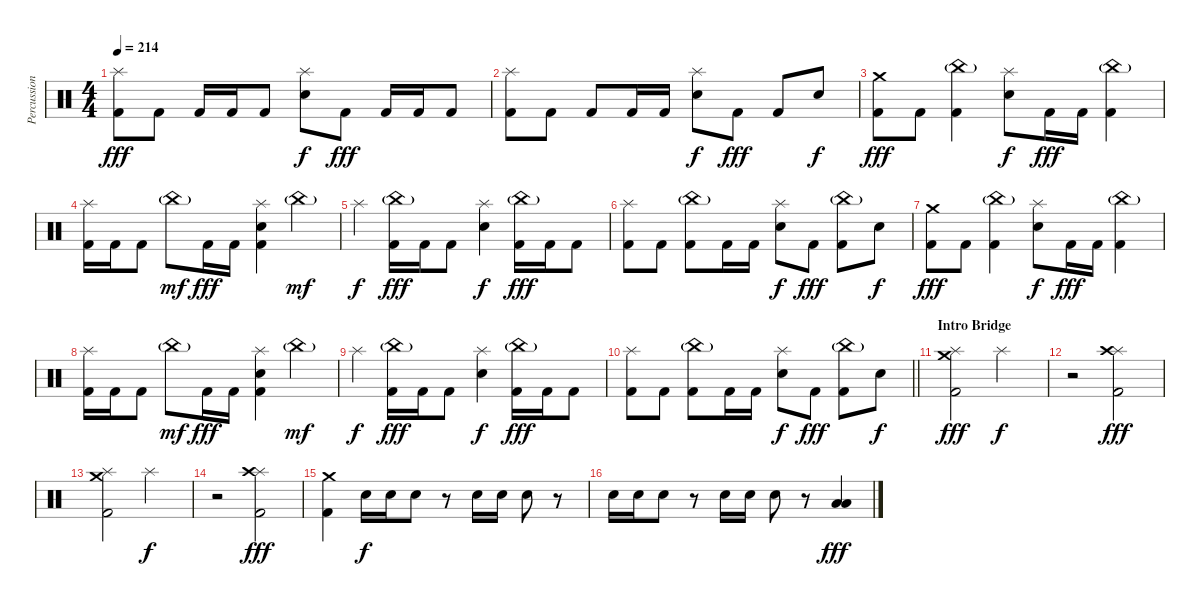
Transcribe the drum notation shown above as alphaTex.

\track ("Percussion" "Percussion") {instrument percussion}
\staff {score}
\articulation defaults
\ts (4 4)
\tempo 214
\clef neutral
\ks c
("Splash (hit)" "Kick (hit) 2").8{dy fff} "Kick (hit) 2".8 "Kick (hit) 2".16 "Kick (hit) 2".16 "Kick (hit) 2".8 ("Splash (hit)" "Electric Snare (hit)").8{dy f} "Kick (hit) 2".8{dy fff} "Kick (hit) 2".16 "Kick (hit) 2".16 "Kick (hit) 2".8 |
("Splash (hit)" "Kick (hit) 2").8 "Kick (hit) 2".8 "Kick (hit) 2".8 "Kick (hit) 2".16 "Kick (hit) 2".16 ("Splash (hit)" "Electric Snare (hit)").8{dy f} "Kick (hit) 2".8{dy fff} "Kick (hit) 2".8 "Electric Snare (hit)".8{dy f} |
("Crash medium (hit)" "Kick (hit) 2").8{dy fff} "Kick (hit) 2".8 ("China (hit)"{g} "Kick (hit) 2").4 ("Splash (hit)" "Electric Snare (hit)").8{dy f} "Kick (hit) 2".16{dy fff} "Kick (hit) 2".16 ("China (hit)"{g} "Kick (hit) 2").4 |
("Splash (hit)" "Kick (hit) 2").16 "Kick (hit) 2".16 "Kick (hit) 2".8 "China (hit)"{g}.8{dy mf} "Kick (hit) 2".16{dy fff} "Kick (hit) 2".16 ("Splash (hit)" "Electric Snare (hit)" "Kick (hit) 2").4 "China (hit)"{g}.4{dy mf} |
"Splash (hit)".4{dy f} ("China (hit)"{g} "Kick (hit) 2").16{dy fff} "Kick (hit) 2".16 "Kick (hit) 2".8 ("Splash (hit)" "Electric Snare (hit)").4{dy f} ("China (hit)"{g} "Kick (hit) 2").16{dy fff} "Kick (hit) 2".16 "Kick (hit) 2".8 |
("Splash (hit)" "Kick (hit) 2").8 "Kick (hit) 2".8 ("China (hit)"{g} "Kick (hit) 2").8 "Kick (hit) 2".16 "Kick (hit) 2".16 ("Splash (hit)" "Electric Snare (hit)").8{dy f} "Kick (hit) 2".8{dy fff} ("China (hit)"{g} "Kick (hit) 2").8 "Electric Snare (hit)".8{dy f} |
("Crash medium (hit)" "Kick (hit) 2").8{dy fff} "Kick (hit) 2".8 ("China (hit)"{g} "Kick (hit) 2").4 ("Splash (hit)" "Electric Snare (hit)").8{dy f} "Kick (hit) 2".16{dy fff} "Kick (hit) 2".16 ("China (hit)"{g} "Kick (hit) 2").4 |
("Splash (hit)" "Kick (hit) 2").16 "Kick (hit) 2".16 "Kick (hit) 2".8 "China (hit)"{g}.8{dy mf} "Kick (hit) 2".16{dy fff} "Kick (hit) 2".16 ("Splash (hit)" "Electric Snare (hit)" "Kick (hit) 2").4 "China (hit)"{g}.4{dy mf} |
"Splash (hit)".4{dy f} ("China (hit)"{g} "Kick (hit) 2").16{dy fff} "Kick (hit) 2".16 "Kick (hit) 2".8 ("Splash (hit)" "Electric Snare (hit)").4{dy f} ("China (hit)"{g} "Kick (hit) 2").16{dy fff} "Kick (hit) 2".16 "Kick (hit) 2".8 |
\barLineRight lightlight
("Splash (hit)" "Kick (hit) 2").8 "Kick (hit) 2".8 ("China (hit)"{g} "Kick (hit) 2").8 "Kick (hit) 2".16 "Kick (hit) 2".16 ("Splash (hit)" "Electric Snare (hit)").8{dy f} "Kick (hit) 2".8{dy fff} ("China (hit)"{g} "Kick (hit) 2").8 "Electric Snare (hit)".8{dy f} |
\section ("" "Intro Bridge")
("Splash (hit)" "Crash medium (hit)" "Kick (hit) 2").2{dy fff} "Splash (hit)".2{dy f} |
r.2 ("Splash (hit)" "Crash high (hit)" "Kick (hit) 2").2{dy fff} |
("Splash (hit)" "Crash medium (hit)" "Kick (hit) 2").2 "Splash (hit)".2{dy f} |
r.2 ("Splash (hit)" "Crash high (hit)" "Kick (hit) 2").2{dy fff} |
("Crash medium (hit)" "Kick (hit) 2").4 "Electric Snare (hit)".16{dy f} "Electric Snare (hit)".16 "Electric Snare (hit)".8 r.8 "Electric Snare (hit)".16 "Electric Snare (hit)".16 "Electric Snare (hit)".8 r.8 |
"Electric Snare (hit)".16 "Electric Snare (hit)".16 "Electric Snare (hit)".8 r.8 "Electric Snare (hit)".16 "Electric Snare (hit)".16 "Electric Snare (hit)".8 r.8 ("Low Tom (hit)" "Low Floor Tom (hit)").4{dy fff}
